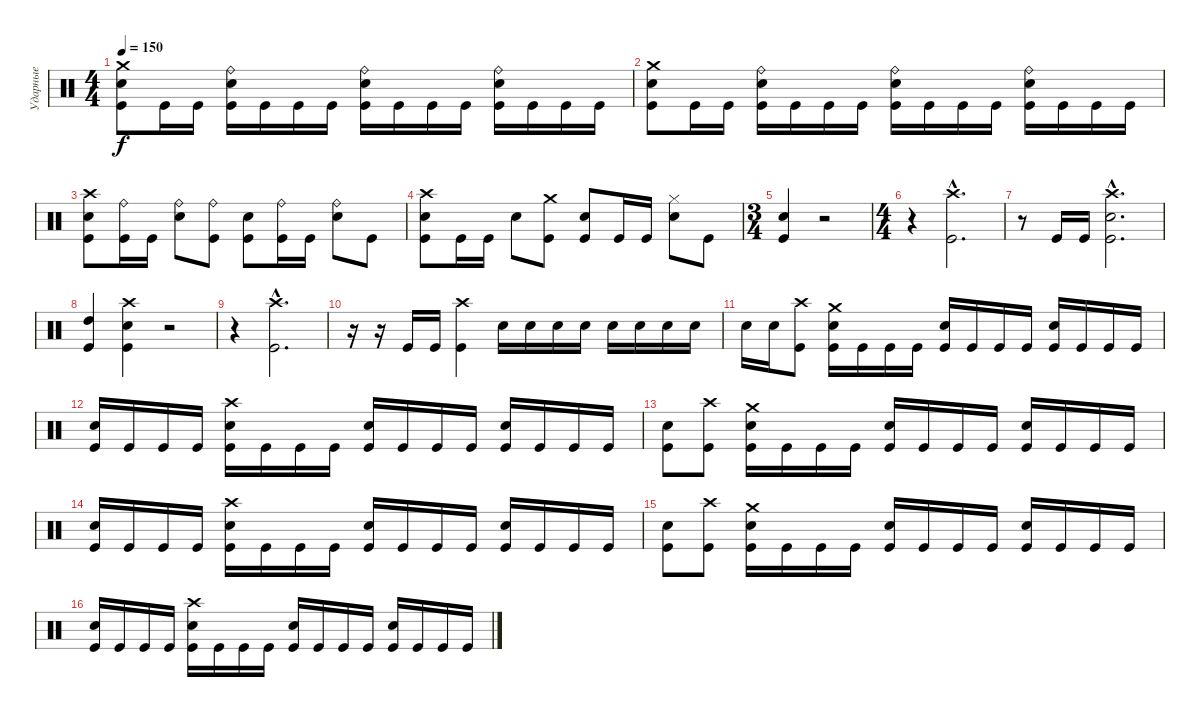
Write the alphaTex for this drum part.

\track ("Ударные" "Ударные") {instrument percussion}
\staff {score}
\articulation defaults
\ts (4 4)
\tempo 150
\clef neutral
\ks c
("Crash medium (hit)" "Electric Snare (hit)" "Kick (hit)").8{dy f} "Kick (hit)".16 "Kick (hit)".16 ("Ride (bell)" "Electric Snare (hit)" "Kick (hit)").16 "Kick (hit)".16 "Kick (hit)".16 "Kick (hit)".16 ("Ride (bell)" "Electric Snare (hit)" "Kick (hit)").16 "Kick (hit)".16 "Kick (hit)".16 "Kick (hit)".16 ("Ride (bell)" "Electric Snare (hit)" "Kick (hit)").16 "Kick (hit)".16 "Kick (hit)".16 "Kick (hit)".16 |
("Crash medium (hit)" "Electric Snare (hit)" "Kick (hit)").8 "Kick (hit)".16 "Kick (hit)".16 ("Ride (bell)" "Electric Snare (hit)" "Kick (hit)").16 "Kick (hit)".16 "Kick (hit)".16 "Kick (hit)".16 ("Ride (bell)" "Electric Snare (hit)" "Kick (hit)").16 "Kick (hit)".16 "Kick (hit)".16 "Kick (hit)".16 ("Ride (bell)" "Electric Snare (hit)" "Kick (hit)").16 "Kick (hit)".16 "Kick (hit)".16 "Kick (hit)".16 |
("Crash high (hit)" "Electric Snare (hit)" "Kick (hit)").8 ("Ride (bell)" "Kick (hit)").16 "Kick (hit)".16 ("Ride (bell)" "Electric Snare (hit)").8 ("Ride (bell)" "Kick (hit)").8 ("Electric Snare (hit)" "Kick (hit)").8 ("Ride (bell)" "Kick (hit)").16 "Kick (hit)".16 ("Ride (bell)" "Electric Snare (hit)").8 "Kick (hit)".8 |
("Crash high (hit)" "Electric Snare (hit)" "Kick (hit)").8 "Kick (hit)".16 "Kick (hit)".16 "Electric Snare (hit)".8 ("Crash medium (hit)" "Kick (hit)").8 ("Electric Snare (hit)" "Kick (hit)").8 "Kick (hit)".16 "Kick (hit)".16 ("Hi-Hat (closed)" "Electric Snare (hit)").8 "Kick (hit)".8 |
\ts (3 4)
("Electric Snare (hit)" "Kick (hit)").4 r.2 |
\ts (4 4)
r.4 ("Crash high (hit)"{hac} "Kick (hit)"{hac}).2{d} |
r.8 "Kick (hit)".16 "Kick (hit)".16 ("Crash high (hit)"{hac} "Electric Snare (hit)"{hac} "Kick (hit)"{hac}).2{d} |
("High Tom (hit)" "Kick (hit)").4 ("Crash high (hit)" "Electric Snare (hit)" "Kick (hit)").4 r.2 |
r.4 ("Crash high (hit)"{hac} "Kick (hit)"{hac}).2{d} |
r.16 r.16 "Kick (hit)".16 "Kick (hit)".16 ("Crash high (hit)" "Kick (hit)").4 "Electric Snare (hit)".16 "Electric Snare (hit)".16 "Electric Snare (hit)".16 "Electric Snare (hit)".16 "Electric Snare (hit)".16 "Electric Snare (hit)".16 "Electric Snare (hit)".16 "Electric Snare (hit)".16 |
"Electric Snare (hit)".16 "Electric Snare (hit)".16 ("Crash high (hit)" "Kick (hit)").8 ("Crash medium (hit)" "Electric Snare (hit)" "Kick (hit)").16 "Kick (hit)".16 "Kick (hit)".16 "Kick (hit)".16 ("Electric Snare (hit)" "Kick (hit)").16 "Kick (hit)".16 "Kick (hit)".16 "Kick (hit)".16 ("Electric Snare (hit)" "Kick (hit)").16 "Kick (hit)".16 "Kick (hit)".16 "Kick (hit)".16 |
("Electric Snare (hit)" "Kick (hit)").16 "Kick (hit)".16 "Kick (hit)".16 "Kick (hit)".16 ("Crash high (hit)" "Electric Snare (hit)" "Kick (hit)").16 "Kick (hit)".16 "Kick (hit)".16 "Kick (hit)".16 ("Electric Snare (hit)" "Kick (hit)").16 "Kick (hit)".16 "Kick (hit)".16 "Kick (hit)".16 ("Electric Snare (hit)" "Kick (hit)").16 "Kick (hit)".16 "Kick (hit)".16 "Kick (hit)".16 |
("Electric Snare (hit)" "Kick (hit)").8 ("Crash high (hit)" "Kick (hit)").8 ("Crash medium (hit)" "Electric Snare (hit)" "Kick (hit)").16 "Kick (hit)".16 "Kick (hit)".16 "Kick (hit)".16 ("Electric Snare (hit)" "Kick (hit)").16 "Kick (hit)".16 "Kick (hit)".16 "Kick (hit)".16 ("Electric Snare (hit)" "Kick (hit)").16 "Kick (hit)".16 "Kick (hit)".16 "Kick (hit)".16 |
("Electric Snare (hit)" "Kick (hit)").16 "Kick (hit)".16 "Kick (hit)".16 "Kick (hit)".16 ("Crash high (hit)" "Electric Snare (hit)" "Kick (hit)").16 "Kick (hit)".16 "Kick (hit)".16 "Kick (hit)".16 ("Electric Snare (hit)" "Kick (hit)").16 "Kick (hit)".16 "Kick (hit)".16 "Kick (hit)".16 ("Electric Snare (hit)" "Kick (hit)").16 "Kick (hit)".16 "Kick (hit)".16 "Kick (hit)".16 |
("Electric Snare (hit)" "Kick (hit)").8 ("Crash high (hit)" "Kick (hit)").8 ("Crash medium (hit)" "Electric Snare (hit)" "Kick (hit)").16 "Kick (hit)".16 "Kick (hit)".16 "Kick (hit)".16 ("Electric Snare (hit)" "Kick (hit)").16 "Kick (hit)".16 "Kick (hit)".16 "Kick (hit)".16 ("Electric Snare (hit)" "Kick (hit)").16 "Kick (hit)".16 "Kick (hit)".16 "Kick (hit)".16 |
("Electric Snare (hit)" "Kick (hit)").16 "Kick (hit)".16 "Kick (hit)".16 "Kick (hit)".16 ("Crash high (hit)" "Electric Snare (hit)" "Kick (hit)").16 "Kick (hit)".16 "Kick (hit)".16 "Kick (hit)".16 ("Electric Snare (hit)" "Kick (hit)").16 "Kick (hit)".16 "Kick (hit)".16 "Kick (hit)".16 ("Electric Snare (hit)" "Kick (hit)").16 "Kick (hit)".16 "Kick (hit)".16 "Kick (hit)".16
